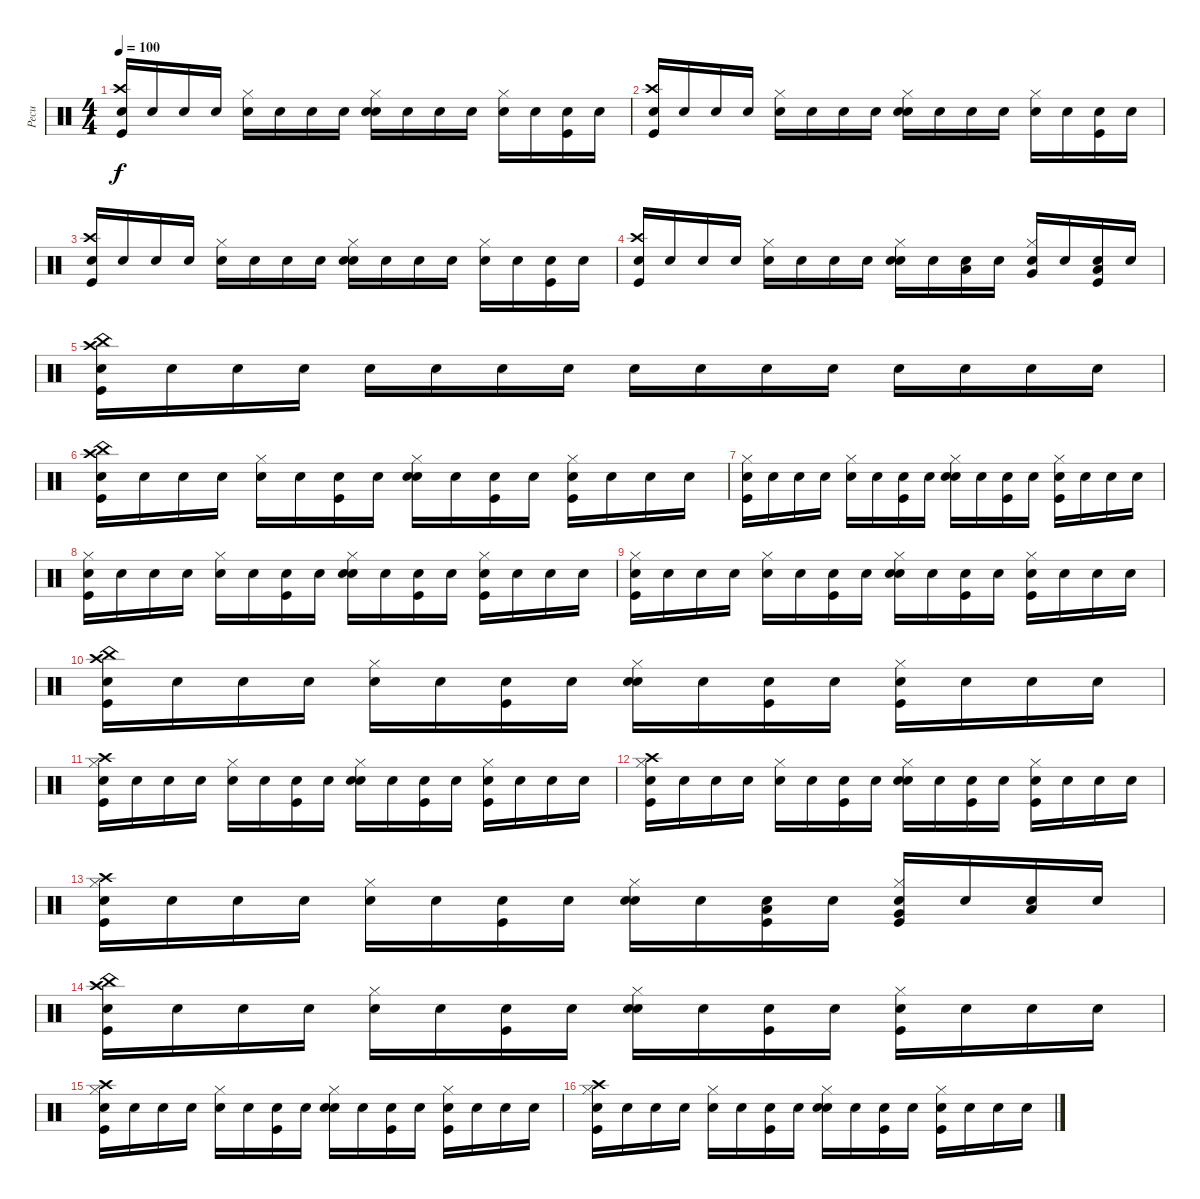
\track ("Pecu" "Pecu") {instrument percussion}
\staff {score}
\articulation defaults
\ts (4 4)
\tempo 100
\clef neutral
\ks c
("Snare (hit)" "Crash high (hit)" "Kick (hit)").16{dy f} "Snare (hit)".16 "Snare (hit)".16 "Snare (hit)".16 ("Snare (hit)" "Hi-Hat (closed)").16 "Snare (hit)".16 "Snare (hit)".16 "Snare (hit)".16 ("Snare (hit)" "Hi-Hat (closed)" "Snare (hit) 2").16 "Snare (hit)".16 "Snare (hit)".16 "Snare (hit)".16 ("Snare (hit)" "Hi-Hat (closed)").16 "Snare (hit)".16 ("Snare (hit)" "Kick (hit)").16 "Snare (hit)".16 |
("Snare (hit)" "Crash high (hit)" "Kick (hit)").16 "Snare (hit)".16 "Snare (hit)".16 "Snare (hit)".16 ("Snare (hit)" "Hi-Hat (closed)").16 "Snare (hit)".16 "Snare (hit)".16 "Snare (hit)".16 ("Snare (hit)" "Hi-Hat (closed)" "Snare (hit) 2").16 "Snare (hit)".16 "Snare (hit)".16 "Snare (hit)".16 ("Snare (hit)" "Hi-Hat (closed)").16 "Snare (hit)".16 ("Snare (hit)" "Kick (hit)").16 "Snare (hit)".16 |
("Snare (hit)" "Crash high (hit)" "Kick (hit)").16 "Snare (hit)".16 "Snare (hit)".16 "Snare (hit)".16 ("Snare (hit)" "Hi-Hat (closed)").16 "Snare (hit)".16 "Snare (hit)".16 "Snare (hit)".16 ("Snare (hit)" "Hi-Hat (closed)" "Snare (hit) 2").16 "Snare (hit)".16 "Snare (hit)".16 "Snare (hit)".16 ("Snare (hit)" "Hi-Hat (closed)").16 "Snare (hit)".16 ("Snare (hit)" "Kick (hit)").16 "Snare (hit)".16 |
("Snare (hit)" "Crash high (hit)" "Kick (hit)").16 "Snare (hit)".16 "Snare (hit)".16 "Snare (hit)".16 ("Snare (hit)" "Hi-Hat (closed)").16 "Snare (hit)".16 "Snare (hit)".16 "Snare (hit)".16 ("Snare (hit)" "Hi-Hat (closed)" "Snare (hit) 2").16 "Snare (hit)".16 ("Snare (hit)" "Low Tom (hit)").16 "Snare (hit)".16 ("Snare (hit)" "Hi-Hat (closed)" "Very Low Tom (hit)").16 "Snare (hit)".16 ("Snare (hit)" "Low Floor Tom (hit)" "Kick (hit)").16 "Snare (hit)".16 |
("Snare (hit)" "Crash high (hit)" "China (hit)" "Kick (hit)").16 "Snare (hit)".16 "Snare (hit)".16 "Snare (hit)".16 "Snare (hit)".16 "Snare (hit)".16 "Snare (hit)".16 "Snare (hit)".16 "Snare (hit)".16 "Snare (hit)".16 "Snare (hit)".16 "Snare (hit)".16 "Snare (hit)".16 "Snare (hit)".16 "Snare (hit)".16 "Snare (hit)".16 |
("Snare (hit)" "Crash high (hit)" "China (hit)" "Kick (hit)").16 "Snare (hit)".16 "Snare (hit)".16 "Snare (hit)".16 ("Snare (hit)" "Hi-Hat (closed)").16 "Snare (hit)".16 ("Snare (hit)" "Kick (hit)").16 "Snare (hit)".16 ("Snare (hit)" "Hi-Hat (closed)" "Snare (hit) 2").16 "Snare (hit)".16 ("Snare (hit)" "Kick (hit)").16 "Snare (hit)".16 ("Snare (hit)" "Hi-Hat (closed)" "Kick (hit)").16 "Snare (hit)".16 "Snare (hit)".16 "Snare (hit)".16 |
("Snare (hit)" "Hi-Hat (closed)" "Kick (hit)").16 "Snare (hit)".16 "Snare (hit)".16 "Snare (hit)".16 ("Snare (hit)" "Hi-Hat (closed)").16 "Snare (hit)".16 ("Snare (hit)" "Kick (hit)").16 "Snare (hit)".16 ("Snare (hit)" "Hi-Hat (closed)" "Snare (hit) 2").16 "Snare (hit)".16 ("Snare (hit)" "Kick (hit)").16 "Snare (hit)".16 ("Snare (hit)" "Hi-Hat (closed)" "Kick (hit)").16 "Snare (hit)".16 "Snare (hit)".16 "Snare (hit)".16 |
("Snare (hit)" "Hi-Hat (closed)" "Kick (hit)").16 "Snare (hit)".16 "Snare (hit)".16 "Snare (hit)".16 ("Snare (hit)" "Hi-Hat (closed)").16 "Snare (hit)".16 ("Snare (hit)" "Kick (hit)").16 "Snare (hit)".16 ("Snare (hit)" "Hi-Hat (closed)" "Snare (hit) 2").16 "Snare (hit)".16 ("Snare (hit)" "Kick (hit)").16 "Snare (hit)".16 ("Snare (hit)" "Hi-Hat (closed)" "Kick (hit)").16 "Snare (hit)".16 "Snare (hit)".16 "Snare (hit)".16 |
("Snare (hit)" "Hi-Hat (closed)" "Kick (hit)").16 "Snare (hit)".16 "Snare (hit)".16 "Snare (hit)".16 ("Snare (hit)" "Hi-Hat (closed)").16 "Snare (hit)".16 ("Snare (hit)" "Kick (hit)").16 "Snare (hit)".16 ("Snare (hit)" "Hi-Hat (closed)" "Snare (hit) 2").16 "Snare (hit)".16 ("Snare (hit)" "Kick (hit)").16 "Snare (hit)".16 ("Snare (hit)" "Hi-Hat (closed)" "Kick (hit)").16 "Snare (hit)".16 "Snare (hit)".16 "Snare (hit)".16 |
("Snare (hit)" "Crash high (hit)" "China (hit)" "Kick (hit)").16 "Snare (hit)".16 "Snare (hit)".16 "Snare (hit)".16 ("Snare (hit)" "Hi-Hat (closed)").16 "Snare (hit)".16 ("Snare (hit)" "Kick (hit)").16 "Snare (hit)".16 ("Snare (hit)" "Hi-Hat (closed)" "Snare (hit) 2").16 "Snare (hit)".16 ("Snare (hit)" "Kick (hit)").16 "Snare (hit)".16 ("Snare (hit)" "Hi-Hat (closed)" "Kick (hit)").16 "Snare (hit)".16 "Snare (hit)".16 "Snare (hit)".16 |
("Snare (hit)" "Hi-Hat (closed)" "Crash high (hit)" "Kick (hit)").16 "Snare (hit)".16 "Snare (hit)".16 "Snare (hit)".16 ("Snare (hit)" "Hi-Hat (closed)").16 "Snare (hit)".16 ("Snare (hit)" "Kick (hit)").16 "Snare (hit)".16 ("Snare (hit)" "Hi-Hat (closed)" "Snare (hit) 2").16 "Snare (hit)".16 ("Snare (hit)" "Kick (hit)").16 "Snare (hit)".16 ("Snare (hit)" "Hi-Hat (closed)" "Kick (hit)").16 "Snare (hit)".16 "Snare (hit)".16 "Snare (hit)".16 |
("Snare (hit)" "Hi-Hat (closed)" "Crash high (hit)" "Kick (hit)").16 "Snare (hit)".16 "Snare (hit)".16 "Snare (hit)".16 ("Snare (hit)" "Hi-Hat (closed)").16 "Snare (hit)".16 ("Snare (hit)" "Kick (hit)").16 "Snare (hit)".16 ("Snare (hit)" "Hi-Hat (closed)" "Snare (hit) 2").16 "Snare (hit)".16 ("Snare (hit)" "Kick (hit)").16 "Snare (hit)".16 ("Snare (hit)" "Hi-Hat (closed)" "Kick (hit)").16 "Snare (hit)".16 "Snare (hit)".16 "Snare (hit)".16 |
("Snare (hit)" "Hi-Hat (closed)" "Crash high (hit)" "Kick (hit)").16 "Snare (hit)".16 "Snare (hit)".16 "Snare (hit)".16 ("Snare (hit)" "Hi-Hat (closed)").16 "Snare (hit)".16 ("Snare (hit)" "Kick (hit)").16 "Snare (hit)".16 ("Snare (hit)" "Hi-Hat (closed)" "Snare (hit) 2").16 "Snare (hit)".16 ("Snare (hit)" "Low Tom (hit)" "Kick (hit)").16 "Snare (hit)".16 ("Snare (hit)" "Hi-Hat (closed)" "Very Low Tom (hit)" "Kick (hit)").16 "Snare (hit)".16 ("Snare (hit)" "Low Floor Tom (hit)").16 "Snare (hit)".16 |
("Snare (hit)" "Crash high (hit)" "China (hit)" "Kick (hit)").16 "Snare (hit)".16 "Snare (hit)".16 "Snare (hit)".16 ("Snare (hit)" "Hi-Hat (closed)").16 "Snare (hit)".16 ("Snare (hit)" "Kick (hit)").16 "Snare (hit)".16 ("Snare (hit)" "Hi-Hat (closed)" "Snare (hit) 2").16 "Snare (hit)".16 ("Snare (hit)" "Kick (hit)").16 "Snare (hit)".16 ("Snare (hit)" "Hi-Hat (closed)" "Kick (hit)").16 "Snare (hit)".16 "Snare (hit)".16 "Snare (hit)".16 |
("Snare (hit)" "Hi-Hat (closed)" "Crash high (hit)" "Kick (hit)").16 "Snare (hit)".16 "Snare (hit)".16 "Snare (hit)".16 ("Snare (hit)" "Hi-Hat (closed)").16 "Snare (hit)".16 ("Snare (hit)" "Kick (hit)").16 "Snare (hit)".16 ("Snare (hit)" "Hi-Hat (closed)" "Snare (hit) 2").16 "Snare (hit)".16 ("Snare (hit)" "Kick (hit)").16 "Snare (hit)".16 ("Snare (hit)" "Hi-Hat (closed)" "Kick (hit)").16 "Snare (hit)".16 "Snare (hit)".16 "Snare (hit)".16 |
("Snare (hit)" "Hi-Hat (closed)" "Crash high (hit)" "Kick (hit)").16 "Snare (hit)".16 "Snare (hit)".16 "Snare (hit)".16 ("Snare (hit)" "Hi-Hat (closed)").16 "Snare (hit)".16 ("Snare (hit)" "Kick (hit)").16 "Snare (hit)".16 ("Snare (hit)" "Hi-Hat (closed)" "Snare (hit) 2").16 "Snare (hit)".16 ("Snare (hit)" "Kick (hit)").16 "Snare (hit)".16 ("Snare (hit)" "Hi-Hat (closed)" "Kick (hit)").16 "Snare (hit)".16 "Snare (hit)".16 "Snare (hit)".16
